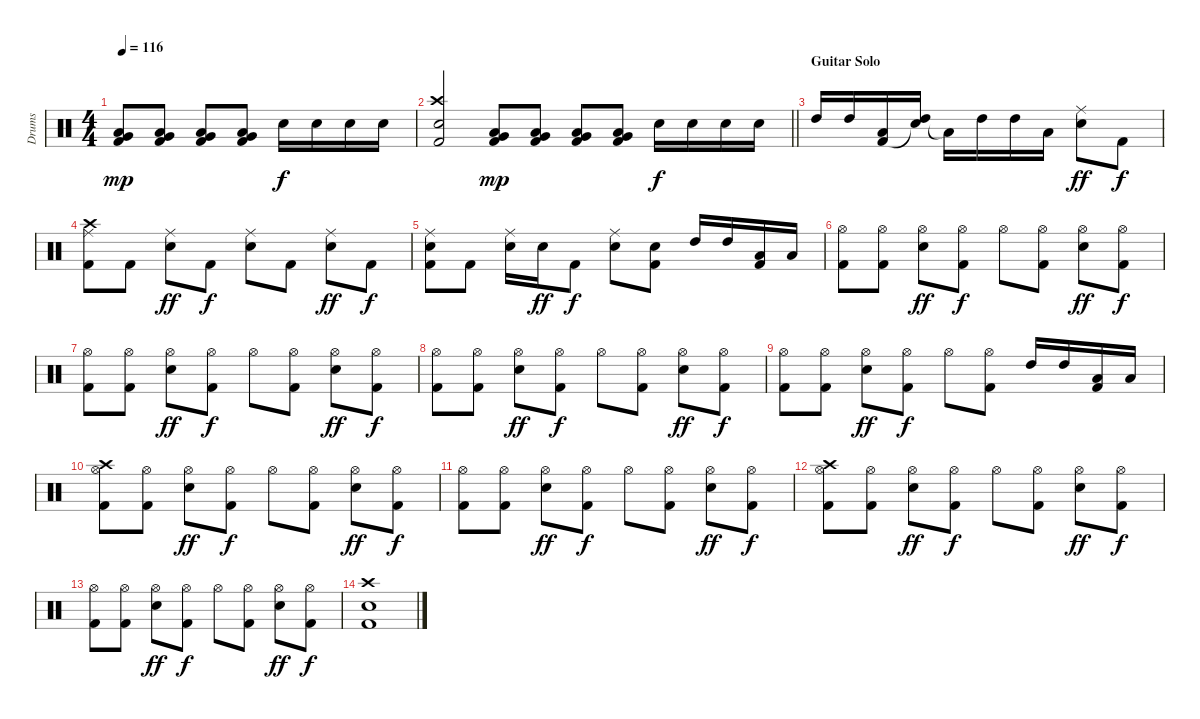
\track ("Drums" "Drums") {instrument percussion}
\staff {score}
\articulation defaults
\ts (4 4)
\tempo 116
\clef neutral
\ks c
("Very Low Tom (hit)" "Low Tom (hit)" "Kick (hit) 2").8{dy mp} ("Very Low Tom (hit)" "Low Tom (hit)" "Kick (hit) 2").8 ("Very Low Tom (hit)" "Low Tom (hit)" "Kick (hit) 2").8 ("Very Low Tom (hit)" "Low Tom (hit)" "Kick (hit) 2").8 "Snare (hit) 2".16{dy f} "Snare (hit) 2".16{volume 16} "Snare (hit) 2".16{volume 16} "Snare (hit) 2".16{volume 16} |
\barLineRight lightlight
("Crash high (hit)" "Electric Snare (hit)" "Kick (hit) 2").2{volume 16} ("Very Low Tom (hit)" "Low Tom (hit)" "Kick (hit) 2").8{dy mp volume 16} ("Very Low Tom (hit)" "Low Tom (hit)" "Kick (hit) 2").8{volume 16} ("Very Low Tom (hit)" "Low Tom (hit)" "Kick (hit) 2").8{volume 16} ("Very Low Tom (hit)" "Low Tom (hit)" "Kick (hit) 2").8{volume 16} "Snare (hit) 2".16{dy f volume 16} "Snare (hit) 2".16{volume 16} "Snare (hit) 2".16{volume 16} "Snare (hit) 2".16{volume 16} |
\section ("" "Guitar Solo")
"High Tom (hit)".16 "High Tom (hit)".16 ("Low Tom (hit)" "Kick (hit) 2").16 ("High Tom (hit)" "Snare (hit)"{t}).16 "Low Tom (hit)"{t}.16 "High Tom (hit)".16 "High Tom (hit)".16 "Low Tom (hit)".16 ("Ride (middle)" "Snare (hit) 2").8{dy ff} "Kick (hit) 2".8{dy f} |
("Crash high (hit)" "Ride (middle)" "Kick (hit) 2").8 "Kick (hit) 2".8 ("Ride (middle)" "Snare (hit) 2").8{dy ff} "Kick (hit) 2".8{dy f} ("Ride (middle)" "Snare (hit) 2").8 "Kick (hit) 2".8 ("Ride (middle)" "Snare (hit) 2").8{dy ff} "Kick (hit) 2".8{dy f} |
("Ride (middle)" "Snare (hit) 2" "Kick (hit) 2").8 "Kick (hit) 2".8 ("Ride (middle)" "Snare (hit) 2").16 "Snare (hit) 2".16{dy ff} "Kick (hit) 2".8{dy f} ("Ride (middle)" "Snare (hit) 2").8 ("Snare (hit) 2" "Kick (hit) 2").8 "High Tom (hit)".16 "High Tom (hit)".16 ("Low Tom (hit)" "Kick (hit) 2").16 "Low Tom (hit)".16 |
("Hi-Hat (open)" "Kick (hit) 2").8 ("Hi-Hat (open)" "Kick (hit) 2").8 ("Hi-Hat (open)" "Snare (hit) 2").8{dy ff} ("Hi-Hat (open)" "Kick (hit) 2").8{dy f} "Hi-Hat (open)".8 ("Hi-Hat (open)" "Kick (hit) 2").8 ("Hi-Hat (open)" "Snare (hit) 2").8{dy ff} ("Hi-Hat (open)" "Kick (hit) 2").8{dy f} |
("Hi-Hat (open)" "Kick (hit) 2").8 ("Hi-Hat (open)" "Kick (hit) 2").8 ("Hi-Hat (open)" "Snare (hit) 2").8{dy ff} ("Hi-Hat (open)" "Kick (hit) 2").8{dy f} "Hi-Hat (open)".8 ("Hi-Hat (open)" "Kick (hit) 2").8 ("Hi-Hat (open)" "Snare (hit) 2").8{dy ff} ("Hi-Hat (open)" "Kick (hit) 2").8{dy f} |
("Hi-Hat (open)" "Kick (hit) 2").8 ("Hi-Hat (open)" "Kick (hit) 2").8 ("Hi-Hat (open)" "Snare (hit) 2").8{dy ff} ("Hi-Hat (open)" "Kick (hit) 2").8{dy f} "Hi-Hat (open)".8 ("Hi-Hat (open)" "Kick (hit) 2").8 ("Hi-Hat (open)" "Snare (hit) 2").8{dy ff} ("Hi-Hat (open)" "Kick (hit) 2").8{dy f} |
("Hi-Hat (open)" "Kick (hit) 2").8 ("Hi-Hat (open)" "Kick (hit) 2").8 ("Hi-Hat (open)" "Snare (hit) 2").8{dy ff} ("Hi-Hat (open)" "Kick (hit) 2").8{dy f} "Hi-Hat (open)".8 ("Hi-Hat (open)" "Kick (hit) 2").8 "High Tom (hit)".16 "High Tom (hit)".16 ("Low Tom (hit)" "Kick (hit) 2").16 "Low Tom (hit)".16 |
("Crash high (hit)" "Hi-Hat (open)" "Kick (hit) 2").8 ("Hi-Hat (open)" "Kick (hit) 2").8 ("Hi-Hat (open)" "Snare (hit) 2").8{dy ff} ("Hi-Hat (open)" "Kick (hit) 2").8{dy f} "Hi-Hat (open)".8 ("Hi-Hat (open)" "Kick (hit) 2").8 ("Hi-Hat (open)" "Snare (hit) 2").8{dy ff} ("Hi-Hat (open)" "Kick (hit) 2").8{dy f} |
("Hi-Hat (open)" "Kick (hit) 2").8 ("Hi-Hat (open)" "Kick (hit) 2").8 ("Hi-Hat (open)" "Snare (hit) 2").8{dy ff} ("Hi-Hat (open)" "Kick (hit) 2").8{dy f} "Hi-Hat (open)".8 ("Hi-Hat (open)" "Kick (hit) 2").8 ("Hi-Hat (open)" "Snare (hit) 2").8{dy ff} ("Hi-Hat (open)" "Kick (hit) 2").8{dy f} |
("Crash high (hit)" "Hi-Hat (open)" "Kick (hit) 2").8 ("Hi-Hat (open)" "Kick (hit) 2").8 ("Hi-Hat (open)" "Snare (hit) 2").8{dy ff} ("Hi-Hat (open)" "Kick (hit) 2").8{dy f} "Hi-Hat (open)".8 ("Hi-Hat (open)" "Kick (hit) 2").8 ("Hi-Hat (open)" "Snare (hit) 2").8{dy ff} ("Hi-Hat (open)" "Kick (hit) 2").8{dy f} |
("Hi-Hat (open)" "Kick (hit) 2").8 ("Hi-Hat (open)" "Kick (hit) 2").8 ("Hi-Hat (open)" "Snare (hit) 2").8{dy ff} ("Hi-Hat (open)" "Kick (hit) 2").8{dy f} "Hi-Hat (open)".8 ("Hi-Hat (open)" "Kick (hit) 2").8 ("Hi-Hat (open)" "Snare (hit) 2").8{dy ff} ("Hi-Hat (open)" "Kick (hit) 2").8{dy f} |
("Crash high (hit)" "Snare (hit) 2" "Kick (hit) 2").1{volume 16}
